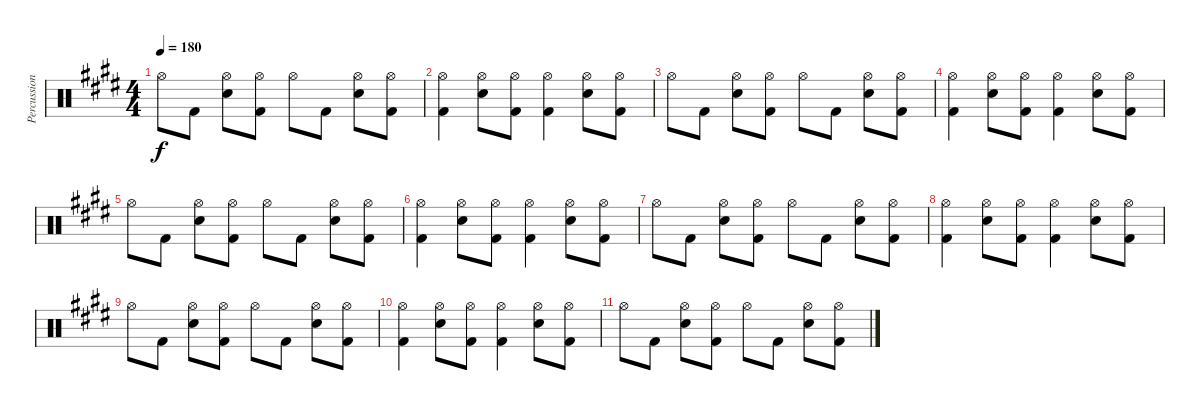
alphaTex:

\track ("Percussion" "Percussion") {instrument percussion}
\staff {score}
\articulation defaults
\ts (4 4)
\tempo 180
\clef neutral
\ks c#minor "Hi-Hat (open)".8{dy f} "Kick (hit) 2".8
("Hi-Hat (open)" "Snare (hit) 2").8 ("Hi-Hat (open)" "Kick (hit) 2").8 "Hi-Hat (open)".8 "Kick (hit) 2".8 ("Hi-Hat (open)" "Snare (hit) 2").8 ("Hi-Hat (open)" "Kick (hit) 2").8 |
("Hi-Hat (open)" "Kick (hit) 2").4 ("Hi-Hat (open)" "Snare (hit) 2").8 ("Hi-Hat (open)" "Kick (hit) 2").8 ("Hi-Hat (open)" "Kick (hit) 2").4 ("Hi-Hat (open)" "Snare (hit) 2").8 ("Hi-Hat (open)" "Kick (hit) 2").8 |
"Hi-Hat (open)".8 "Kick (hit) 2".8 ("Hi-Hat (open)" "Snare (hit) 2").8 ("Hi-Hat (open)" "Kick (hit) 2").8 "Hi-Hat (open)".8 "Kick (hit) 2".8 ("Hi-Hat (open)" "Snare (hit) 2").8 ("Hi-Hat (open)" "Kick (hit) 2").8 |
("Hi-Hat (open)" "Kick (hit) 2").4 ("Hi-Hat (open)" "Snare (hit) 2").8 ("Hi-Hat (open)" "Kick (hit) 2").8 ("Hi-Hat (open)" "Kick (hit) 2").4 ("Hi-Hat (open)" "Snare (hit) 2").8 ("Hi-Hat (open)" "Kick (hit) 2").8 |
"Hi-Hat (open)".8 "Kick (hit) 2".8 ("Hi-Hat (open)" "Snare (hit) 2").8 ("Hi-Hat (open)" "Kick (hit) 2").8 "Hi-Hat (open)".8 "Kick (hit) 2".8 ("Hi-Hat (open)" "Snare (hit) 2").8 ("Hi-Hat (open)" "Kick (hit) 2").8 |
("Hi-Hat (open)" "Kick (hit) 2").4 ("Hi-Hat (open)" "Snare (hit) 2").8 ("Hi-Hat (open)" "Kick (hit) 2").8 ("Hi-Hat (open)" "Kick (hit) 2").4 ("Hi-Hat (open)" "Snare (hit) 2").8 ("Hi-Hat (open)" "Kick (hit) 2").8 |
"Hi-Hat (open)".8 "Kick (hit) 2".8 ("Hi-Hat (open)" "Snare (hit) 2").8 ("Hi-Hat (open)" "Kick (hit) 2").8 "Hi-Hat (open)".8 "Kick (hit) 2".8 ("Hi-Hat (open)" "Snare (hit) 2").8 ("Hi-Hat (open)" "Kick (hit) 2").8 |
("Hi-Hat (open)" "Kick (hit) 2").4 ("Hi-Hat (open)" "Snare (hit) 2").8 ("Hi-Hat (open)" "Kick (hit) 2").8 ("Hi-Hat (open)" "Kick (hit) 2").4 ("Hi-Hat (open)" "Snare (hit) 2").8 ("Hi-Hat (open)" "Kick (hit) 2").8 |
"Hi-Hat (open)".8 "Kick (hit) 2".8 ("Hi-Hat (open)" "Snare (hit) 2").8 ("Hi-Hat (open)" "Kick (hit) 2").8 "Hi-Hat (open)".8 "Kick (hit) 2".8 ("Hi-Hat (open)" "Snare (hit) 2").8 ("Hi-Hat (open)" "Kick (hit) 2").8 |
("Hi-Hat (open)" "Kick (hit) 2").4 ("Hi-Hat (open)" "Snare (hit) 2").8 ("Hi-Hat (open)" "Kick (hit) 2").8 ("Hi-Hat (open)" "Kick (hit) 2").4 ("Hi-Hat (open)" "Snare (hit) 2").8 ("Hi-Hat (open)" "Kick (hit) 2").8 |
"Hi-Hat (open)".8 "Kick (hit) 2".8 ("Hi-Hat (open)" "Snare (hit) 2").8 ("Hi-Hat (open)" "Kick (hit) 2").8 "Hi-Hat (open)".8 "Kick (hit) 2".8 ("Hi-Hat (open)" "Snare (hit) 2").8 ("Hi-Hat (open)" "Kick (hit) 2").8
